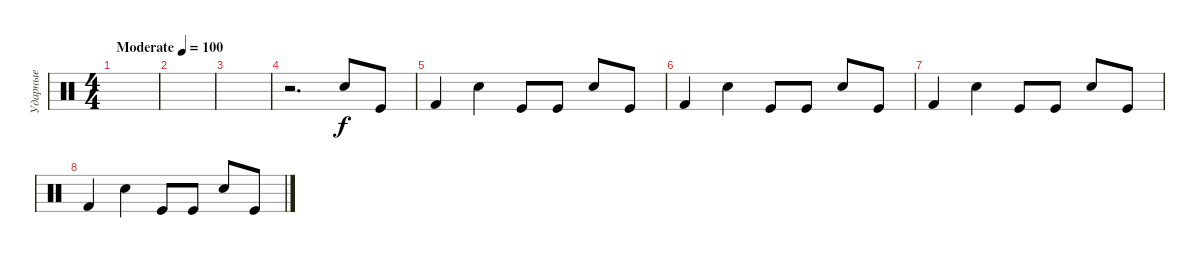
\track ("Ударные" "Ударные") {solo instrument percussion}
\staff {score}
\articulation defaults
\ts (4 4)
\tempo (100 "Moderate")
\clef neutral
\ks c
|
|
|
r.2{d} "Snare (hit) 2".8 "Kick (hit)".8 |
"Kick (hit) 2".4 "Snare (hit) 2".4 "Kick (hit)".8 "Kick (hit)".8 "Snare (hit) 2".8 "Kick (hit)".8 |
"Kick (hit) 2".4 "Snare (hit) 2".4 "Kick (hit)".8 "Kick (hit)".8 "Snare (hit) 2".8 "Kick (hit)".8 |
"Kick (hit) 2".4 "Snare (hit) 2".4 "Kick (hit)".8 "Kick (hit)".8 "Snare (hit) 2".8 "Kick (hit)".8 |
"Kick (hit) 2".4 "Snare (hit) 2".4 "Kick (hit)".8 "Kick (hit)".8 "Snare (hit) 2".8 "Kick (hit)".8
